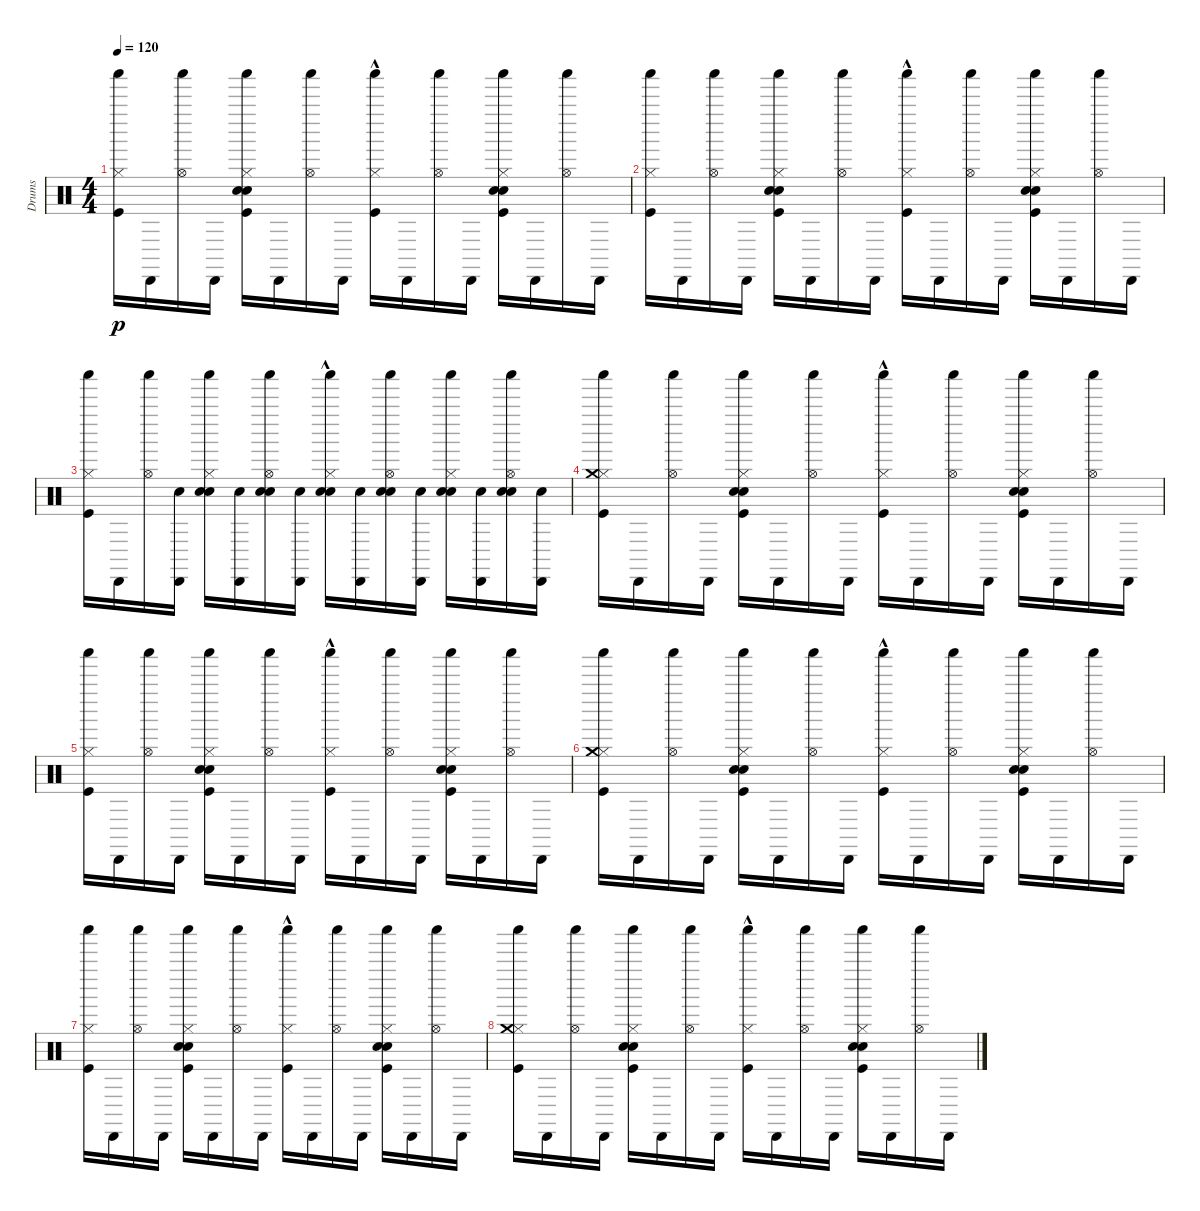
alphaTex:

\track ("Drums" "Drums") {instrument percussion}
\staff {score}
\articulation defaults
\ts (4 4)
\tempo 120
\clef neutral
\ks c
("Kick (hit)" "Hi-Hat (closed)" "Shaker (hit)").16{dy p} "Cabasa (hit)".16 ("Hi-Hat (open)" "Shaker (hit)").16 "Cabasa (hit)".16 ("Kick (hit)" "Snare (hit) 2" "Electric Snare (hit)" "Hi-Hat (closed)" "Shaker (hit)").16 "Cabasa (hit)".16 ("Hi-Hat (open)" "Shaker (hit)").16 "Cabasa (hit)".16 ("Kick (hit)" "Hi-Hat (closed)" "Shaker (hit)"{hac}).16 "Cabasa (hit)".16 ("Hi-Hat (open)" "Shaker (hit)").16 "Cabasa (hit)".16 ("Kick (hit)" "Snare (hit) 2" "Electric Snare (hit)" "Hi-Hat (closed)" "Shaker (hit)").16 "Cabasa (hit)".16 ("Hi-Hat (open)" "Shaker (hit)").16 "Cabasa (hit)".16 |
("Kick (hit)" "Hi-Hat (closed)" "Shaker (hit)").16 "Cabasa (hit)".16 ("Hi-Hat (open)" "Shaker (hit)").16 "Cabasa (hit)".16 ("Kick (hit)" "Snare (hit) 2" "Electric Snare (hit)" "Hi-Hat (closed)" "Shaker (hit)").16 "Cabasa (hit)".16 ("Hi-Hat (open)" "Shaker (hit)").16 "Cabasa (hit)".16 ("Kick (hit)" "Hi-Hat (closed)" "Shaker (hit)"{hac}).16 "Cabasa (hit)".16 ("Hi-Hat (open)" "Shaker (hit)").16 "Cabasa (hit)".16 ("Kick (hit)" "Snare (hit) 2" "Electric Snare (hit)" "Hi-Hat (closed)" "Shaker (hit)").16 "Cabasa (hit)".16 ("Hi-Hat (open)" "Shaker (hit)").16 "Cabasa (hit)".16 |
("Kick (hit)" "Hi-Hat (closed)" "Shaker (hit)").16 "Cabasa (hit)".16 ("Hi-Hat (open)" "Shaker (hit)").16 ("Snare (hit) 2" "Cabasa (hit)").16 ("Snare (hit) 2" "Electric Snare (hit)" "Hi-Hat (closed)" "Shaker (hit)").16 ("Snare (hit) 2" "Cabasa (hit)").16 ("Snare (hit) 2" "Electric Snare (hit)" "Hi-Hat (open)" "Shaker (hit)").16 ("Snare (hit) 2" "Cabasa (hit)").16 ("Snare (hit) 2" "Electric Snare (hit)" "Hi-Hat (closed)" "Shaker (hit)"{hac}).16 ("Snare (hit) 2" "Cabasa (hit)").16 ("Snare (hit) 2" "Electric Snare (hit)" "Hi-Hat (open)" "Shaker (hit)").16 ("Snare (hit) 2" "Cabasa (hit)").16 ("Snare (hit) 2" "Electric Snare (hit)" "Hi-Hat (closed)" "Shaker (hit)").16 ("Snare (hit) 2" "Cabasa (hit)").16 ("Snare (hit) 2" "Electric Snare (hit)" "Hi-Hat (open)" "Shaker (hit)").16 ("Snare (hit) 2" "Cabasa (hit)").16 |
("Kick (hit)" "Hi-Hat (closed)" "Crash medium (hit)" "Shaker (hit)").16 "Cabasa (hit)".16 ("Hi-Hat (open)" "Shaker (hit)").16 "Cabasa (hit)".16 ("Kick (hit)" "Snare (hit) 2" "Electric Snare (hit)" "Hi-Hat (closed)" "Shaker (hit)").16 "Cabasa (hit)".16 ("Hi-Hat (open)" "Shaker (hit)").16 "Cabasa (hit)".16 ("Kick (hit)" "Hi-Hat (closed)" "Shaker (hit)"{hac}).16 "Cabasa (hit)".16 ("Hi-Hat (open)" "Shaker (hit)").16 "Cabasa (hit)".16 ("Kick (hit)" "Snare (hit) 2" "Electric Snare (hit)" "Hi-Hat (closed)" "Shaker (hit)").16 "Cabasa (hit)".16 ("Hi-Hat (open)" "Shaker (hit)").16 "Cabasa (hit)".16 |
("Kick (hit)" "Hi-Hat (closed)" "Shaker (hit)").16 "Cabasa (hit)".16 ("Hi-Hat (open)" "Shaker (hit)").16 "Cabasa (hit)".16 ("Kick (hit)" "Snare (hit) 2" "Electric Snare (hit)" "Hi-Hat (closed)" "Shaker (hit)").16 "Cabasa (hit)".16 ("Hi-Hat (open)" "Shaker (hit)").16 "Cabasa (hit)".16 ("Kick (hit)" "Hi-Hat (closed)" "Shaker (hit)"{hac}).16 "Cabasa (hit)".16 ("Hi-Hat (open)" "Shaker (hit)").16 "Cabasa (hit)".16 ("Kick (hit)" "Snare (hit) 2" "Electric Snare (hit)" "Hi-Hat (closed)" "Shaker (hit)").16 "Cabasa (hit)".16 ("Hi-Hat (open)" "Shaker (hit)").16 "Cabasa (hit)".16 |
("Kick (hit)" "Hi-Hat (closed)" "Crash medium (hit)" "Shaker (hit)").16 "Cabasa (hit)".16 ("Hi-Hat (open)" "Shaker (hit)").16 "Cabasa (hit)".16 ("Kick (hit)" "Snare (hit) 2" "Electric Snare (hit)" "Hi-Hat (closed)" "Shaker (hit)").16 "Cabasa (hit)".16 ("Hi-Hat (open)" "Shaker (hit)").16 "Cabasa (hit)".16 ("Kick (hit)" "Hi-Hat (closed)" "Shaker (hit)"{hac}).16 "Cabasa (hit)".16 ("Hi-Hat (open)" "Shaker (hit)").16 "Cabasa (hit)".16 ("Kick (hit)" "Snare (hit) 2" "Electric Snare (hit)" "Hi-Hat (closed)" "Shaker (hit)").16 "Cabasa (hit)".16 ("Hi-Hat (open)" "Shaker (hit)").16 "Cabasa (hit)".16 |
("Kick (hit)" "Hi-Hat (closed)" "Shaker (hit)").16 "Cabasa (hit)".16 ("Hi-Hat (open)" "Shaker (hit)").16 "Cabasa (hit)".16 ("Kick (hit)" "Snare (hit) 2" "Electric Snare (hit)" "Hi-Hat (closed)" "Shaker (hit)").16 "Cabasa (hit)".16 ("Hi-Hat (open)" "Shaker (hit)").16 "Cabasa (hit)".16 ("Kick (hit)" "Hi-Hat (closed)" "Shaker (hit)"{hac}).16 "Cabasa (hit)".16 ("Hi-Hat (open)" "Shaker (hit)").16 "Cabasa (hit)".16 ("Kick (hit)" "Snare (hit) 2" "Electric Snare (hit)" "Hi-Hat (closed)" "Shaker (hit)").16 "Cabasa (hit)".16 ("Hi-Hat (open)" "Shaker (hit)").16 "Cabasa (hit)".16 |
("Kick (hit)" "Hi-Hat (closed)" "Crash medium (hit)" "Shaker (hit)").16 "Cabasa (hit)".16 ("Hi-Hat (open)" "Shaker (hit)").16 "Cabasa (hit)".16 ("Kick (hit)" "Snare (hit) 2" "Electric Snare (hit)" "Hi-Hat (closed)" "Shaker (hit)").16 "Cabasa (hit)".16 ("Hi-Hat (open)" "Shaker (hit)").16 "Cabasa (hit)".16 ("Kick (hit)" "Hi-Hat (closed)" "Shaker (hit)"{hac}).16 "Cabasa (hit)".16 ("Hi-Hat (open)" "Shaker (hit)").16 "Cabasa (hit)".16 ("Kick (hit)" "Snare (hit) 2" "Electric Snare (hit)" "Hi-Hat (closed)" "Shaker (hit)").16 "Cabasa (hit)".16 ("Hi-Hat (open)" "Shaker (hit)").16 "Cabasa (hit)".16
